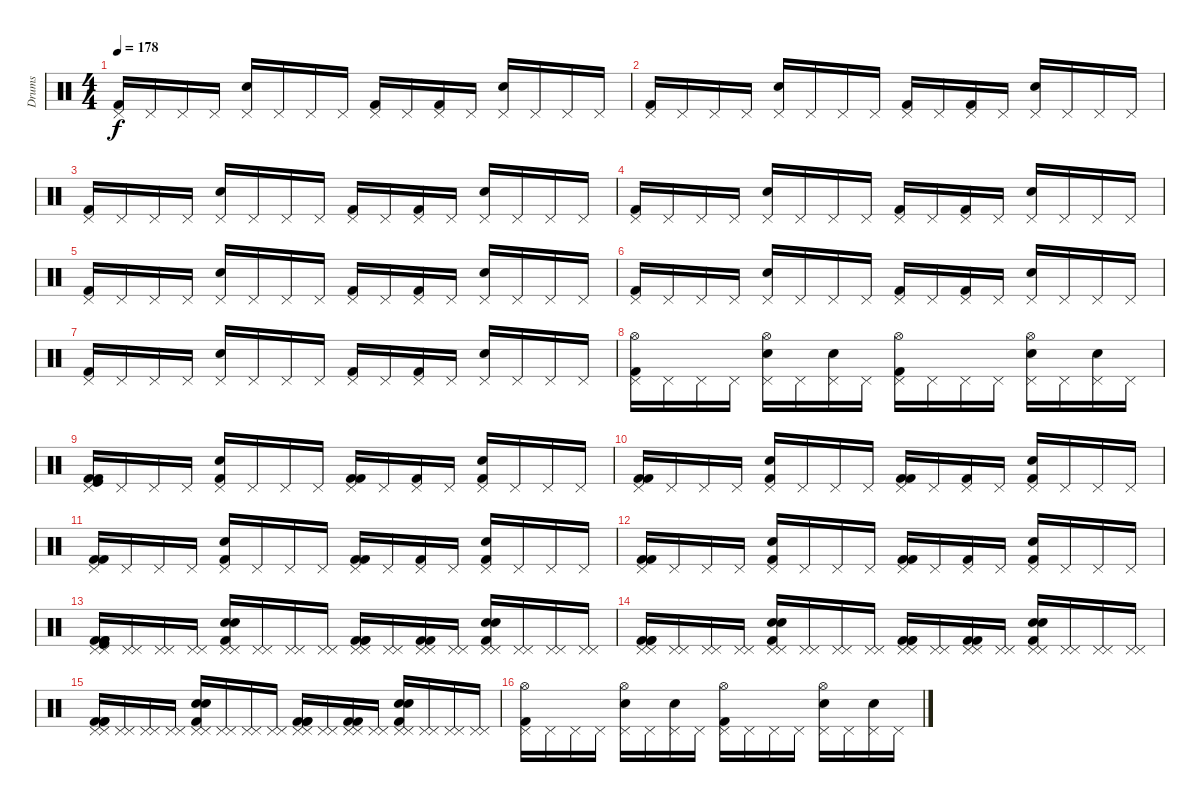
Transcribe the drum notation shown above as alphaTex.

\track ("Drums" "Drums") {instrument percussion}
\staff {score}
\articulation defaults
\ts (4 4)
\tempo 178
\clef neutral
\ks c
("Kick (hit) 2" "Pedal Hi-Hat (hit)").16{dy f} "Pedal Hi-Hat (hit)".16 "Pedal Hi-Hat (hit)".16 "Pedal Hi-Hat (hit)".16 ("Snare (hit) 2" "Pedal Hi-Hat (hit)").16 "Pedal Hi-Hat (hit)".16 "Pedal Hi-Hat (hit)".16 "Pedal Hi-Hat (hit)".16 ("Kick (hit) 2" "Pedal Hi-Hat (hit)").16 "Pedal Hi-Hat (hit)".16 ("Kick (hit) 2" "Pedal Hi-Hat (hit)").16 "Pedal Hi-Hat (hit)".16 ("Snare (hit) 2" "Pedal Hi-Hat (hit)").16 "Pedal Hi-Hat (hit)".16 "Pedal Hi-Hat (hit)".16 "Pedal Hi-Hat (hit)".16 |
("Kick (hit) 2" "Pedal Hi-Hat (hit)").16 "Pedal Hi-Hat (hit)".16 "Pedal Hi-Hat (hit)".16 "Pedal Hi-Hat (hit)".16 ("Snare (hit) 2" "Pedal Hi-Hat (hit)").16 "Pedal Hi-Hat (hit)".16 "Pedal Hi-Hat (hit)".16 "Pedal Hi-Hat (hit)".16 ("Kick (hit) 2" "Pedal Hi-Hat (hit)").16 "Pedal Hi-Hat (hit)".16 ("Kick (hit) 2" "Pedal Hi-Hat (hit)").16 "Pedal Hi-Hat (hit)".16 ("Snare (hit) 2" "Pedal Hi-Hat (hit)").16 "Pedal Hi-Hat (hit)".16 "Pedal Hi-Hat (hit)".16 "Pedal Hi-Hat (hit)".16 |
("Kick (hit) 2" "Pedal Hi-Hat (hit)").16 "Pedal Hi-Hat (hit)".16 "Pedal Hi-Hat (hit)".16 "Pedal Hi-Hat (hit)".16 ("Snare (hit) 2" "Pedal Hi-Hat (hit)").16 "Pedal Hi-Hat (hit)".16 "Pedal Hi-Hat (hit)".16 "Pedal Hi-Hat (hit)".16 ("Kick (hit) 2" "Pedal Hi-Hat (hit)").16 "Pedal Hi-Hat (hit)".16 ("Kick (hit) 2" "Pedal Hi-Hat (hit)").16 "Pedal Hi-Hat (hit)".16 ("Snare (hit) 2" "Pedal Hi-Hat (hit)").16 "Pedal Hi-Hat (hit)".16 "Pedal Hi-Hat (hit)".16 "Pedal Hi-Hat (hit)".16 |
("Kick (hit) 2" "Pedal Hi-Hat (hit)").16 "Pedal Hi-Hat (hit)".16 "Pedal Hi-Hat (hit)".16 "Pedal Hi-Hat (hit)".16 ("Snare (hit) 2" "Pedal Hi-Hat (hit)").16 "Pedal Hi-Hat (hit)".16 "Pedal Hi-Hat (hit)".16 "Pedal Hi-Hat (hit)".16 ("Kick (hit) 2" "Pedal Hi-Hat (hit)").16 "Pedal Hi-Hat (hit)".16 ("Kick (hit) 2" "Pedal Hi-Hat (hit)").16 "Pedal Hi-Hat (hit)".16 ("Snare (hit) 2" "Pedal Hi-Hat (hit)").16 "Pedal Hi-Hat (hit)".16 "Pedal Hi-Hat (hit)".16 "Pedal Hi-Hat (hit)".16 |
("Kick (hit) 2" "Pedal Hi-Hat (hit)").16 "Pedal Hi-Hat (hit)".16 "Pedal Hi-Hat (hit)".16 "Pedal Hi-Hat (hit)".16 ("Snare (hit) 2" "Pedal Hi-Hat (hit)").16 "Pedal Hi-Hat (hit)".16 "Pedal Hi-Hat (hit)".16 "Pedal Hi-Hat (hit)".16 ("Kick (hit) 2" "Pedal Hi-Hat (hit)").16 "Pedal Hi-Hat (hit)".16 ("Kick (hit) 2" "Pedal Hi-Hat (hit)").16 "Pedal Hi-Hat (hit)".16 ("Snare (hit) 2" "Pedal Hi-Hat (hit)").16 "Pedal Hi-Hat (hit)".16 "Pedal Hi-Hat (hit)".16 "Pedal Hi-Hat (hit)".16 |
("Kick (hit) 2" "Pedal Hi-Hat (hit)").16 "Pedal Hi-Hat (hit)".16 "Pedal Hi-Hat (hit)".16 "Pedal Hi-Hat (hit)".16 ("Snare (hit) 2" "Pedal Hi-Hat (hit)").16 "Pedal Hi-Hat (hit)".16 "Pedal Hi-Hat (hit)".16 "Pedal Hi-Hat (hit)".16 ("Kick (hit) 2" "Pedal Hi-Hat (hit)").16 "Pedal Hi-Hat (hit)".16 ("Kick (hit) 2" "Pedal Hi-Hat (hit)").16 "Pedal Hi-Hat (hit)".16 ("Snare (hit) 2" "Pedal Hi-Hat (hit)").16 "Pedal Hi-Hat (hit)".16 "Pedal Hi-Hat (hit)".16 "Pedal Hi-Hat (hit)".16 |
("Kick (hit) 2" "Pedal Hi-Hat (hit)").16 "Pedal Hi-Hat (hit)".16 "Pedal Hi-Hat (hit)".16 "Pedal Hi-Hat (hit)".16 ("Snare (hit) 2" "Pedal Hi-Hat (hit)").16 "Pedal Hi-Hat (hit)".16 "Pedal Hi-Hat (hit)".16 "Pedal Hi-Hat (hit)".16 ("Kick (hit) 2" "Pedal Hi-Hat (hit)").16 "Pedal Hi-Hat (hit)".16 ("Kick (hit) 2" "Pedal Hi-Hat (hit)").16 "Pedal Hi-Hat (hit)".16 ("Snare (hit) 2" "Pedal Hi-Hat (hit)").16 "Pedal Hi-Hat (hit)".16 "Pedal Hi-Hat (hit)".16 "Pedal Hi-Hat (hit)".16 |
("Kick (hit) 2" "Pedal Hi-Hat (hit)" "Hi-Hat (open)").16 "Pedal Hi-Hat (hit)".16 "Pedal Hi-Hat (hit)".16 "Pedal Hi-Hat (hit)".16 ("Snare (hit) 2" "Pedal Hi-Hat (hit)" "Hi-Hat (open)").16 "Pedal Hi-Hat (hit)".16 ("Snare (hit) 2" "Pedal Hi-Hat (hit)").16 "Pedal Hi-Hat (hit)".16 ("Kick (hit) 2" "Pedal Hi-Hat (hit)" "Hi-Hat (open)").16 "Pedal Hi-Hat (hit)".16 "Pedal Hi-Hat (hit)".16 "Pedal Hi-Hat (hit)".16 ("Snare (hit) 2" "Pedal Hi-Hat (hit)" "Hi-Hat (open)").16 "Pedal Hi-Hat (hit)".16 ("Snare (hit) 2" "Pedal Hi-Hat (hit)").16 "Pedal Hi-Hat (hit)".16 |
("Kick (hit) 2" "Pedal Hi-Hat (hit)" "Kick (hit) 2" "Kick (hit)").16 "Pedal Hi-Hat (hit)".16 "Pedal Hi-Hat (hit)".16 "Pedal Hi-Hat (hit)".16 ("Snare (hit) 2" "Pedal Hi-Hat (hit)" "Kick (hit) 2").16 "Pedal Hi-Hat (hit)".16 "Pedal Hi-Hat (hit)".16 "Pedal Hi-Hat (hit)".16 ("Kick (hit) 2" "Pedal Hi-Hat (hit)" "Kick (hit) 2").16 "Pedal Hi-Hat (hit)".16 ("Kick (hit) 2" "Pedal Hi-Hat (hit)").16 "Pedal Hi-Hat (hit)".16 ("Snare (hit) 2" "Pedal Hi-Hat (hit)" "Kick (hit) 2").16 "Pedal Hi-Hat (hit)".16 "Pedal Hi-Hat (hit)".16 "Pedal Hi-Hat (hit)".16 |
("Kick (hit) 2" "Pedal Hi-Hat (hit)" "Kick (hit) 2").16 "Pedal Hi-Hat (hit)".16 "Pedal Hi-Hat (hit)".16 "Pedal Hi-Hat (hit)".16 ("Snare (hit) 2" "Pedal Hi-Hat (hit)" "Kick (hit) 2").16 "Pedal Hi-Hat (hit)".16 "Pedal Hi-Hat (hit)".16 "Pedal Hi-Hat (hit)".16 ("Kick (hit) 2" "Pedal Hi-Hat (hit)" "Kick (hit) 2").16 "Pedal Hi-Hat (hit)".16 ("Kick (hit) 2" "Pedal Hi-Hat (hit)").16 "Pedal Hi-Hat (hit)".16 ("Snare (hit) 2" "Pedal Hi-Hat (hit)" "Kick (hit) 2").16 "Pedal Hi-Hat (hit)".16 "Pedal Hi-Hat (hit)".16 "Pedal Hi-Hat (hit)".16 |
("Kick (hit) 2" "Pedal Hi-Hat (hit)" "Kick (hit) 2").16 "Pedal Hi-Hat (hit)".16 "Pedal Hi-Hat (hit)".16 "Pedal Hi-Hat (hit)".16 ("Snare (hit) 2" "Pedal Hi-Hat (hit)" "Kick (hit) 2").16 "Pedal Hi-Hat (hit)".16 "Pedal Hi-Hat (hit)".16 "Pedal Hi-Hat (hit)".16 ("Kick (hit) 2" "Pedal Hi-Hat (hit)" "Kick (hit) 2").16 "Pedal Hi-Hat (hit)".16 ("Kick (hit) 2" "Pedal Hi-Hat (hit)").16 "Pedal Hi-Hat (hit)".16 ("Snare (hit) 2" "Pedal Hi-Hat (hit)" "Kick (hit) 2").16 "Pedal Hi-Hat (hit)".16 "Pedal Hi-Hat (hit)".16 "Pedal Hi-Hat (hit)".16 |
("Kick (hit) 2" "Pedal Hi-Hat (hit)" "Kick (hit) 2").16 "Pedal Hi-Hat (hit)".16 "Pedal Hi-Hat (hit)".16 "Pedal Hi-Hat (hit)".16 ("Snare (hit) 2" "Pedal Hi-Hat (hit)" "Kick (hit) 2").16 "Pedal Hi-Hat (hit)".16 "Pedal Hi-Hat (hit)".16 "Pedal Hi-Hat (hit)".16 ("Kick (hit) 2" "Pedal Hi-Hat (hit)" "Kick (hit) 2").16 "Pedal Hi-Hat (hit)".16 ("Kick (hit) 2" "Pedal Hi-Hat (hit)").16 "Pedal Hi-Hat (hit)".16 ("Snare (hit) 2" "Pedal Hi-Hat (hit)" "Kick (hit) 2").16 "Pedal Hi-Hat (hit)".16 "Pedal Hi-Hat (hit)".16 "Pedal Hi-Hat (hit)".16 |
("Kick (hit) 2" "Pedal Hi-Hat (hit)" "Kick (hit) 2" "Pedal Hi-Hat (hit)" "Kick (hit) 2" "Kick (hit)").16 ("Pedal Hi-Hat (hit)" "Pedal Hi-Hat (hit)").16 ("Pedal Hi-Hat (hit)" "Pedal Hi-Hat (hit)").16 ("Pedal Hi-Hat (hit)" "Pedal Hi-Hat (hit)").16 ("Snare (hit) 2" "Pedal Hi-Hat (hit)" "Snare (hit) 2" "Pedal Hi-Hat (hit)" "Kick (hit) 2").16 ("Pedal Hi-Hat (hit)" "Pedal Hi-Hat (hit)").16 ("Pedal Hi-Hat (hit)" "Pedal Hi-Hat (hit)").16 ("Pedal Hi-Hat (hit)" "Pedal Hi-Hat (hit)").16 ("Kick (hit) 2" "Pedal Hi-Hat (hit)" "Kick (hit) 2" "Pedal Hi-Hat (hit)" "Kick (hit) 2").16 ("Pedal Hi-Hat (hit)" "Pedal Hi-Hat (hit)").16 ("Kick (hit) 2" "Pedal Hi-Hat (hit)" "Kick (hit) 2" "Pedal Hi-Hat (hit)").16 ("Pedal Hi-Hat (hit)" "Pedal Hi-Hat (hit)").16 ("Snare (hit) 2" "Pedal Hi-Hat (hit)" "Snare (hit) 2" "Pedal Hi-Hat (hit)" "Kick (hit) 2").16 ("Pedal Hi-Hat (hit)" "Pedal Hi-Hat (hit)").16 ("Pedal Hi-Hat (hit)" "Pedal Hi-Hat (hit)").16 ("Pedal Hi-Hat (hit)" "Pedal Hi-Hat (hit)").16 |
("Kick (hit) 2" "Pedal Hi-Hat (hit)" "Kick (hit) 2" "Pedal Hi-Hat (hit)" "Kick (hit) 2").16 ("Pedal Hi-Hat (hit)" "Pedal Hi-Hat (hit)").16 ("Pedal Hi-Hat (hit)" "Pedal Hi-Hat (hit)").16 ("Pedal Hi-Hat (hit)" "Pedal Hi-Hat (hit)").16 ("Snare (hit) 2" "Pedal Hi-Hat (hit)" "Snare (hit) 2" "Pedal Hi-Hat (hit)" "Kick (hit) 2").16 ("Pedal Hi-Hat (hit)" "Pedal Hi-Hat (hit)").16 ("Pedal Hi-Hat (hit)" "Pedal Hi-Hat (hit)").16 ("Pedal Hi-Hat (hit)" "Pedal Hi-Hat (hit)").16 ("Kick (hit) 2" "Pedal Hi-Hat (hit)" "Kick (hit) 2" "Pedal Hi-Hat (hit)" "Kick (hit) 2").16 ("Pedal Hi-Hat (hit)" "Pedal Hi-Hat (hit)").16 ("Kick (hit) 2" "Pedal Hi-Hat (hit)" "Kick (hit) 2" "Pedal Hi-Hat (hit)").16 ("Pedal Hi-Hat (hit)" "Pedal Hi-Hat (hit)").16 ("Snare (hit) 2" "Pedal Hi-Hat (hit)" "Snare (hit) 2" "Pedal Hi-Hat (hit)" "Kick (hit) 2").16 ("Pedal Hi-Hat (hit)" "Pedal Hi-Hat (hit)").16 ("Pedal Hi-Hat (hit)" "Pedal Hi-Hat (hit)").16 ("Pedal Hi-Hat (hit)" "Pedal Hi-Hat (hit)").16 |
("Kick (hit) 2" "Pedal Hi-Hat (hit)" "Kick (hit) 2" "Pedal Hi-Hat (hit)" "Kick (hit) 2").16 ("Pedal Hi-Hat (hit)" "Pedal Hi-Hat (hit)").16 ("Pedal Hi-Hat (hit)" "Pedal Hi-Hat (hit)").16 ("Pedal Hi-Hat (hit)" "Pedal Hi-Hat (hit)").16 ("Snare (hit) 2" "Pedal Hi-Hat (hit)" "Snare (hit) 2" "Pedal Hi-Hat (hit)" "Kick (hit) 2").16 ("Pedal Hi-Hat (hit)" "Pedal Hi-Hat (hit)").16 ("Pedal Hi-Hat (hit)" "Pedal Hi-Hat (hit)").16 ("Pedal Hi-Hat (hit)" "Pedal Hi-Hat (hit)").16 ("Kick (hit) 2" "Pedal Hi-Hat (hit)" "Kick (hit) 2" "Pedal Hi-Hat (hit)" "Kick (hit) 2").16 ("Pedal Hi-Hat (hit)" "Pedal Hi-Hat (hit)").16 ("Kick (hit) 2" "Pedal Hi-Hat (hit)" "Kick (hit) 2" "Pedal Hi-Hat (hit)").16 ("Pedal Hi-Hat (hit)" "Pedal Hi-Hat (hit)").16 ("Snare (hit) 2" "Pedal Hi-Hat (hit)" "Snare (hit) 2" "Pedal Hi-Hat (hit)" "Kick (hit) 2").16 ("Pedal Hi-Hat (hit)" "Pedal Hi-Hat (hit)").16 ("Pedal Hi-Hat (hit)" "Pedal Hi-Hat (hit)").16 ("Pedal Hi-Hat (hit)" "Pedal Hi-Hat (hit)").16 |
("Kick (hit) 2" "Pedal Hi-Hat (hit)" "Hi-Hat (open)").16 "Pedal Hi-Hat (hit)".16 "Pedal Hi-Hat (hit)".16 "Pedal Hi-Hat (hit)".16 ("Snare (hit) 2" "Pedal Hi-Hat (hit)" "Hi-Hat (open)").16 "Pedal Hi-Hat (hit)".16 ("Snare (hit) 2" "Pedal Hi-Hat (hit)").16 "Pedal Hi-Hat (hit)".16 ("Kick (hit) 2" "Pedal Hi-Hat (hit)" "Hi-Hat (open)").16 "Pedal Hi-Hat (hit)".16 "Pedal Hi-Hat (hit)".16 "Pedal Hi-Hat (hit)".16 ("Snare (hit) 2" "Pedal Hi-Hat (hit)" "Hi-Hat (open)").16 "Pedal Hi-Hat (hit)".16 ("Snare (hit) 2" "Pedal Hi-Hat (hit)").16 "Pedal Hi-Hat (hit)".16
